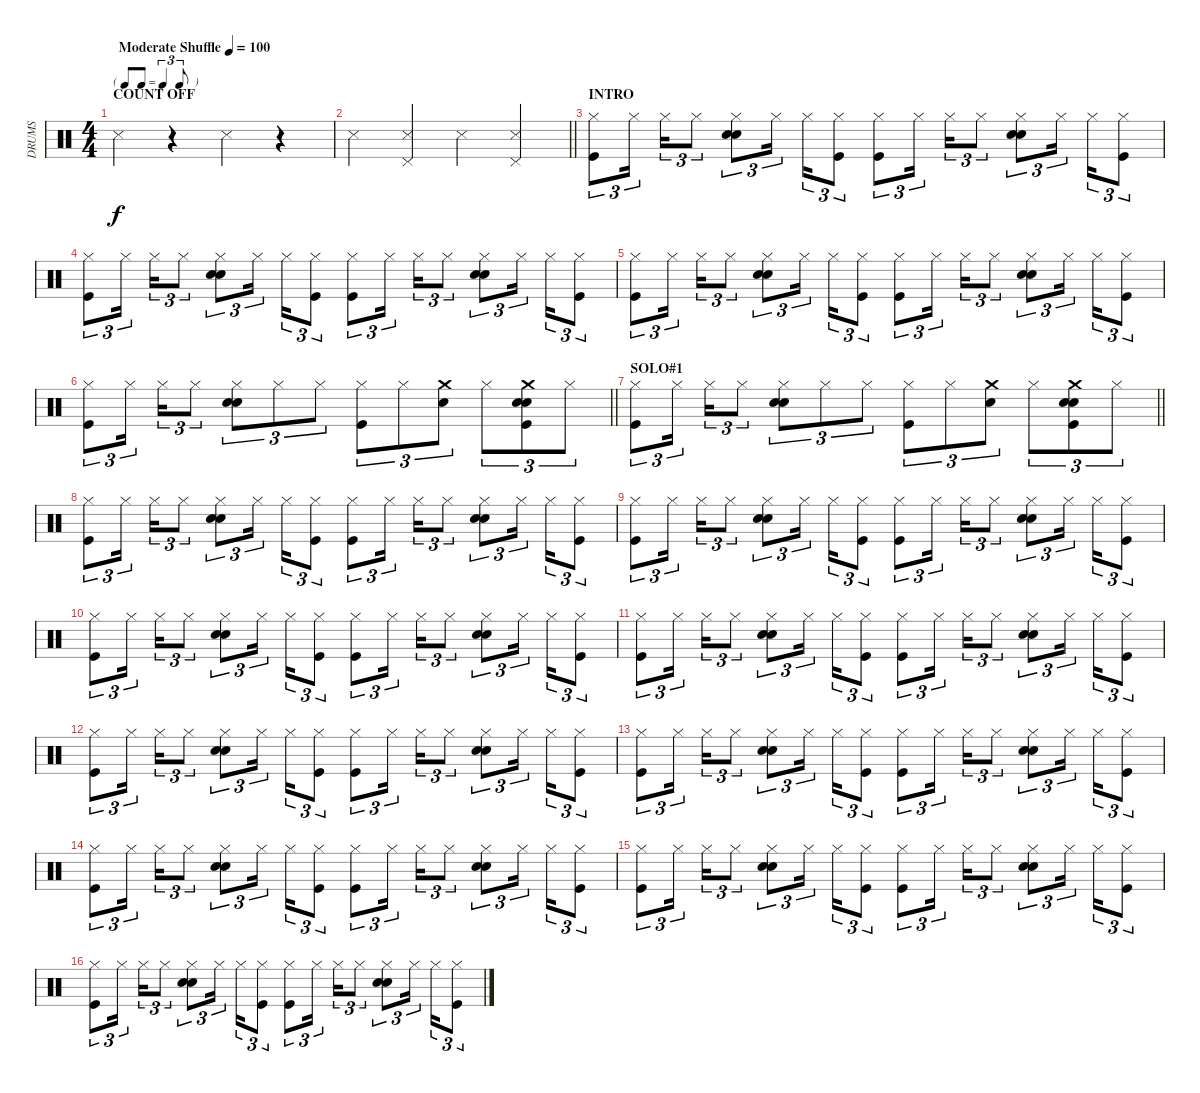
\track ("DRUMS" "DRUMS") {instrument percussion}
\staff {score}
\articulation defaults
\ts (4 4)
\tf triplet8th
\section ("" "COUNT OFF")
\tempo (100 "Moderate Shuffle")
\clef neutral
\ks c "Snare (side stick) 3".4{dy f}
r.4 "Snare (side stick) 3".4 r.4 |
\barLineRight lightlight "Snare (side stick) 3".4
("Snare (side stick) 3" "Pedal Hi-Hat (hit)").4 "Snare (side stick) 3".4 ("Snare (side stick) 3" "Pedal Hi-Hat (hit)").4 |
\section ("" "INTRO")
("Kick (hit)" "Hi-Hat (closed)").8{tu (3 2)} "Hi-Hat (closed)".16{tu (3 2) beam splitsecondary} "Hi-Hat (closed)".16{tu (3 2)} "Hi-Hat (closed)".8{tu (3 2)} ("Hand Clap (hit)" "Electric Snare (hit)" "Hi-Hat (closed)").8{tu (3 2)} "Hi-Hat (closed)".16{tu (3 2) beam splitsecondary} "Hi-Hat (closed)".16{tu (3 2)} ("Kick (hit)" "Hi-Hat (closed)").8{tu (3 2)} ("Kick (hit)" "Hi-Hat (closed)").8{tu (3 2)} "Hi-Hat (closed)".16{tu (3 2) beam splitsecondary} "Hi-Hat (closed)".16{tu (3 2)} "Hi-Hat (closed)".8{tu (3 2)} ("Hand Clap (hit)" "Electric Snare (hit)" "Hi-Hat (closed)").8{tu (3 2)} "Hi-Hat (closed)".16{tu (3 2) beam splitsecondary} "Hi-Hat (closed)".16{tu (3 2)} ("Kick (hit)" "Hi-Hat (closed)").8{tu (3 2)} |
("Kick (hit)" "Hi-Hat (closed)").8{tu (3 2)} "Hi-Hat (closed)".16{tu (3 2) beam splitsecondary} "Hi-Hat (closed)".16{tu (3 2)} "Hi-Hat (closed)".8{tu (3 2)} ("Hand Clap (hit)" "Electric Snare (hit)" "Hi-Hat (closed)").8{tu (3 2)} "Hi-Hat (closed)".16{tu (3 2) beam splitsecondary} "Hi-Hat (closed)".16{tu (3 2)} ("Kick (hit)" "Hi-Hat (closed)").8{tu (3 2)} ("Kick (hit)" "Hi-Hat (closed)").8{tu (3 2)} "Hi-Hat (closed)".16{tu (3 2) beam splitsecondary} "Hi-Hat (closed)".16{tu (3 2)} "Hi-Hat (closed)".8{tu (3 2)} ("Hand Clap (hit)" "Electric Snare (hit)" "Hi-Hat (closed)").8{tu (3 2)} "Hi-Hat (closed)".16{tu (3 2) beam splitsecondary} "Hi-Hat (closed)".16{tu (3 2)} ("Kick (hit)" "Hi-Hat (closed)").8{tu (3 2)} |
("Kick (hit)" "Hi-Hat (closed)").8{tu (3 2)} "Hi-Hat (closed)".16{tu (3 2) beam splitsecondary} "Hi-Hat (closed)".16{tu (3 2)} "Hi-Hat (closed)".8{tu (3 2)} ("Hand Clap (hit)" "Electric Snare (hit)" "Hi-Hat (closed)").8{tu (3 2)} "Hi-Hat (closed)".16{tu (3 2) beam splitsecondary} "Hi-Hat (closed)".16{tu (3 2)} ("Kick (hit)" "Hi-Hat (closed)").8{tu (3 2)} ("Kick (hit)" "Hi-Hat (closed)").8{tu (3 2)} "Hi-Hat (closed)".16{tu (3 2) beam splitsecondary} "Hi-Hat (closed)".16{tu (3 2)} "Hi-Hat (closed)".8{tu (3 2)} ("Hand Clap (hit)" "Electric Snare (hit)" "Hi-Hat (closed)").8{tu (3 2)} "Hi-Hat (closed)".16{tu (3 2) beam splitsecondary} "Hi-Hat (closed)".16{tu (3 2)} ("Kick (hit)" "Hi-Hat (closed)").8{tu (3 2)} |
\barLineRight lightlight
("Kick (hit)" "Hi-Hat (closed)").8{tu (3 2)} "Hi-Hat (closed)".16{tu (3 2) beam splitsecondary} "Hi-Hat (closed)".16{tu (3 2)} "Hi-Hat (closed)".8{tu (3 2)} ("Hand Clap (hit)" "Electric Snare (hit)" "Hi-Hat (closed)").8{tu (3 2)} "Hi-Hat (closed)".8{tu (3 2)} "Hi-Hat (closed)".8{tu (3 2)} ("Kick (hit)" "Hi-Hat (closed)").8{tu (3 2)} "Hi-Hat (closed)".8{tu (3 2)} ("Electric Snare (hit)" "Crash medium (hit)").8{tu (3 2)} "Hi-Hat (closed)".8{tu (3 2)} ("Hand Clap (hit)" "Kick (hit)" "Electric Snare (hit)" "Crash medium (hit)").8{tu (3 2)} "Hi-Hat (closed)".8{tu (3 2)} |
\section ("" "SOLO#1")
\barLineRight lightlight
("Kick (hit)" "Hi-Hat (closed)").8{tu (3 2)} "Hi-Hat (closed)".16{tu (3 2) beam splitsecondary} "Hi-Hat (closed)".16{tu (3 2)} "Hi-Hat (closed)".8{tu (3 2)} ("Hand Clap (hit)" "Electric Snare (hit)" "Hi-Hat (closed)").8{tu (3 2)} "Hi-Hat (closed)".8{tu (3 2)} "Hi-Hat (closed)".8{tu (3 2)} ("Kick (hit)" "Hi-Hat (closed)").8{tu (3 2)} "Hi-Hat (closed)".8{tu (3 2)} ("Electric Snare (hit)" "Crash medium (hit)").8{tu (3 2)} "Hi-Hat (closed)".8{tu (3 2)} ("Hand Clap (hit)" "Kick (hit)" "Electric Snare (hit)" "Crash medium (hit)").8{tu (3 2)} "Hi-Hat (closed)".8{tu (3 2)} |
("Kick (hit)" "Hi-Hat (closed)").8{tu (3 2)} "Hi-Hat (closed)".16{tu (3 2) beam splitsecondary} "Hi-Hat (closed)".16{tu (3 2)} "Hi-Hat (closed)".8{tu (3 2)} ("Hand Clap (hit)" "Electric Snare (hit)" "Hi-Hat (closed)").8{tu (3 2)} "Hi-Hat (closed)".16{tu (3 2) beam splitsecondary} "Hi-Hat (closed)".16{tu (3 2)} ("Kick (hit)" "Hi-Hat (closed)").8{tu (3 2)} ("Kick (hit)" "Hi-Hat (closed)").8{tu (3 2)} "Hi-Hat (closed)".16{tu (3 2) beam splitsecondary} "Hi-Hat (closed)".16{tu (3 2)} "Hi-Hat (closed)".8{tu (3 2)} ("Hand Clap (hit)" "Electric Snare (hit)" "Hi-Hat (closed)").8{tu (3 2)} "Hi-Hat (closed)".16{tu (3 2) beam splitsecondary} "Hi-Hat (closed)".16{tu (3 2)} ("Kick (hit)" "Hi-Hat (closed)").8{tu (3 2)} |
("Kick (hit)" "Hi-Hat (closed)").8{tu (3 2)} "Hi-Hat (closed)".16{tu (3 2) beam splitsecondary} "Hi-Hat (closed)".16{tu (3 2)} "Hi-Hat (closed)".8{tu (3 2)} ("Hand Clap (hit)" "Electric Snare (hit)" "Hi-Hat (closed)").8{tu (3 2)} "Hi-Hat (closed)".16{tu (3 2) beam splitsecondary} "Hi-Hat (closed)".16{tu (3 2)} ("Kick (hit)" "Hi-Hat (closed)").8{tu (3 2)} ("Kick (hit)" "Hi-Hat (closed)").8{tu (3 2)} "Hi-Hat (closed)".16{tu (3 2) beam splitsecondary} "Hi-Hat (closed)".16{tu (3 2)} "Hi-Hat (closed)".8{tu (3 2)} ("Hand Clap (hit)" "Electric Snare (hit)" "Hi-Hat (closed)").8{tu (3 2)} "Hi-Hat (closed)".16{tu (3 2) beam splitsecondary} "Hi-Hat (closed)".16{tu (3 2)} ("Kick (hit)" "Hi-Hat (closed)").8{tu (3 2)} |
("Kick (hit)" "Hi-Hat (closed)").8{tu (3 2)} "Hi-Hat (closed)".16{tu (3 2) beam splitsecondary} "Hi-Hat (closed)".16{tu (3 2)} "Hi-Hat (closed)".8{tu (3 2)} ("Hand Clap (hit)" "Electric Snare (hit)" "Hi-Hat (closed)").8{tu (3 2)} "Hi-Hat (closed)".16{tu (3 2) beam splitsecondary} "Hi-Hat (closed)".16{tu (3 2)} ("Kick (hit)" "Hi-Hat (closed)").8{tu (3 2)} ("Kick (hit)" "Hi-Hat (closed)").8{tu (3 2)} "Hi-Hat (closed)".16{tu (3 2) beam splitsecondary} "Hi-Hat (closed)".16{tu (3 2)} "Hi-Hat (closed)".8{tu (3 2)} ("Hand Clap (hit)" "Electric Snare (hit)" "Hi-Hat (closed)").8{tu (3 2)} "Hi-Hat (closed)".16{tu (3 2) beam splitsecondary} "Hi-Hat (closed)".16{tu (3 2)} ("Kick (hit)" "Hi-Hat (closed)").8{tu (3 2)} |
("Kick (hit)" "Hi-Hat (closed)").8{tu (3 2)} "Hi-Hat (closed)".16{tu (3 2) beam splitsecondary} "Hi-Hat (closed)".16{tu (3 2)} "Hi-Hat (closed)".8{tu (3 2)} ("Hand Clap (hit)" "Electric Snare (hit)" "Hi-Hat (closed)").8{tu (3 2)} "Hi-Hat (closed)".16{tu (3 2) beam splitsecondary} "Hi-Hat (closed)".16{tu (3 2)} ("Kick (hit)" "Hi-Hat (closed)").8{tu (3 2)} ("Kick (hit)" "Hi-Hat (closed)").8{tu (3 2)} "Hi-Hat (closed)".16{tu (3 2) beam splitsecondary} "Hi-Hat (closed)".16{tu (3 2)} "Hi-Hat (closed)".8{tu (3 2)} ("Hand Clap (hit)" "Electric Snare (hit)" "Hi-Hat (closed)").8{tu (3 2)} "Hi-Hat (closed)".16{tu (3 2) beam splitsecondary} "Hi-Hat (closed)".16{tu (3 2)} ("Kick (hit)" "Hi-Hat (closed)").8{tu (3 2)} |
("Kick (hit)" "Hi-Hat (closed)").8{tu (3 2)} "Hi-Hat (closed)".16{tu (3 2) beam splitsecondary} "Hi-Hat (closed)".16{tu (3 2)} "Hi-Hat (closed)".8{tu (3 2)} ("Hand Clap (hit)" "Electric Snare (hit)" "Hi-Hat (closed)").8{tu (3 2)} "Hi-Hat (closed)".16{tu (3 2) beam splitsecondary} "Hi-Hat (closed)".16{tu (3 2)} ("Kick (hit)" "Hi-Hat (closed)").8{tu (3 2)} ("Kick (hit)" "Hi-Hat (closed)").8{tu (3 2)} "Hi-Hat (closed)".16{tu (3 2) beam splitsecondary} "Hi-Hat (closed)".16{tu (3 2)} "Hi-Hat (closed)".8{tu (3 2)} ("Hand Clap (hit)" "Electric Snare (hit)" "Hi-Hat (closed)").8{tu (3 2)} "Hi-Hat (closed)".16{tu (3 2) beam splitsecondary} "Hi-Hat (closed)".16{tu (3 2)} ("Kick (hit)" "Hi-Hat (closed)").8{tu (3 2)} |
("Kick (hit)" "Hi-Hat (closed)").8{tu (3 2)} "Hi-Hat (closed)".16{tu (3 2) beam splitsecondary} "Hi-Hat (closed)".16{tu (3 2)} "Hi-Hat (closed)".8{tu (3 2)} ("Hand Clap (hit)" "Electric Snare (hit)" "Hi-Hat (closed)").8{tu (3 2)} "Hi-Hat (closed)".16{tu (3 2) beam splitsecondary} "Hi-Hat (closed)".16{tu (3 2)} ("Kick (hit)" "Hi-Hat (closed)").8{tu (3 2)} ("Kick (hit)" "Hi-Hat (closed)").8{tu (3 2)} "Hi-Hat (closed)".16{tu (3 2) beam splitsecondary} "Hi-Hat (closed)".16{tu (3 2)} "Hi-Hat (closed)".8{tu (3 2)} ("Hand Clap (hit)" "Electric Snare (hit)" "Hi-Hat (closed)").8{tu (3 2)} "Hi-Hat (closed)".16{tu (3 2) beam splitsecondary} "Hi-Hat (closed)".16{tu (3 2)} ("Kick (hit)" "Hi-Hat (closed)").8{tu (3 2)} |
("Kick (hit)" "Hi-Hat (closed)").8{tu (3 2)} "Hi-Hat (closed)".16{tu (3 2) beam splitsecondary} "Hi-Hat (closed)".16{tu (3 2)} "Hi-Hat (closed)".8{tu (3 2)} ("Hand Clap (hit)" "Electric Snare (hit)" "Hi-Hat (closed)").8{tu (3 2)} "Hi-Hat (closed)".16{tu (3 2) beam splitsecondary} "Hi-Hat (closed)".16{tu (3 2)} ("Kick (hit)" "Hi-Hat (closed)").8{tu (3 2)} ("Kick (hit)" "Hi-Hat (closed)").8{tu (3 2)} "Hi-Hat (closed)".16{tu (3 2) beam splitsecondary} "Hi-Hat (closed)".16{tu (3 2)} "Hi-Hat (closed)".8{tu (3 2)} ("Hand Clap (hit)" "Electric Snare (hit)" "Hi-Hat (closed)").8{tu (3 2)} "Hi-Hat (closed)".16{tu (3 2) beam splitsecondary} "Hi-Hat (closed)".16{tu (3 2)} ("Kick (hit)" "Hi-Hat (closed)").8{tu (3 2)} |
("Kick (hit)" "Hi-Hat (closed)").8{tu (3 2)} "Hi-Hat (closed)".16{tu (3 2) beam splitsecondary} "Hi-Hat (closed)".16{tu (3 2)} "Hi-Hat (closed)".8{tu (3 2)} ("Hand Clap (hit)" "Electric Snare (hit)" "Hi-Hat (closed)").8{tu (3 2)} "Hi-Hat (closed)".16{tu (3 2) beam splitsecondary} "Hi-Hat (closed)".16{tu (3 2)} ("Kick (hit)" "Hi-Hat (closed)").8{tu (3 2)} ("Kick (hit)" "Hi-Hat (closed)").8{tu (3 2)} "Hi-Hat (closed)".16{tu (3 2) beam splitsecondary} "Hi-Hat (closed)".16{tu (3 2)} "Hi-Hat (closed)".8{tu (3 2)} ("Hand Clap (hit)" "Electric Snare (hit)" "Hi-Hat (closed)").8{tu (3 2)} "Hi-Hat (closed)".16{tu (3 2) beam splitsecondary} "Hi-Hat (closed)".16{tu (3 2)} ("Kick (hit)" "Hi-Hat (closed)").8{tu (3 2)} |
("Kick (hit)" "Hi-Hat (closed)").8{tu (3 2)} "Hi-Hat (closed)".16{tu (3 2) beam splitsecondary} "Hi-Hat (closed)".16{tu (3 2)} "Hi-Hat (closed)".8{tu (3 2)} ("Hand Clap (hit)" "Electric Snare (hit)" "Hi-Hat (closed)").8{tu (3 2)} "Hi-Hat (closed)".16{tu (3 2) beam splitsecondary} "Hi-Hat (closed)".16{tu (3 2)} ("Kick (hit)" "Hi-Hat (closed)").8{tu (3 2)} ("Kick (hit)" "Hi-Hat (closed)").8{tu (3 2)} "Hi-Hat (closed)".16{tu (3 2) beam splitsecondary} "Hi-Hat (closed)".16{tu (3 2)} "Hi-Hat (closed)".8{tu (3 2)} ("Hand Clap (hit)" "Electric Snare (hit)" "Hi-Hat (closed)").8{tu (3 2)} "Hi-Hat (closed)".16{tu (3 2) beam splitsecondary} "Hi-Hat (closed)".16{tu (3 2)} ("Kick (hit)" "Hi-Hat (closed)").8{tu (3 2)}
